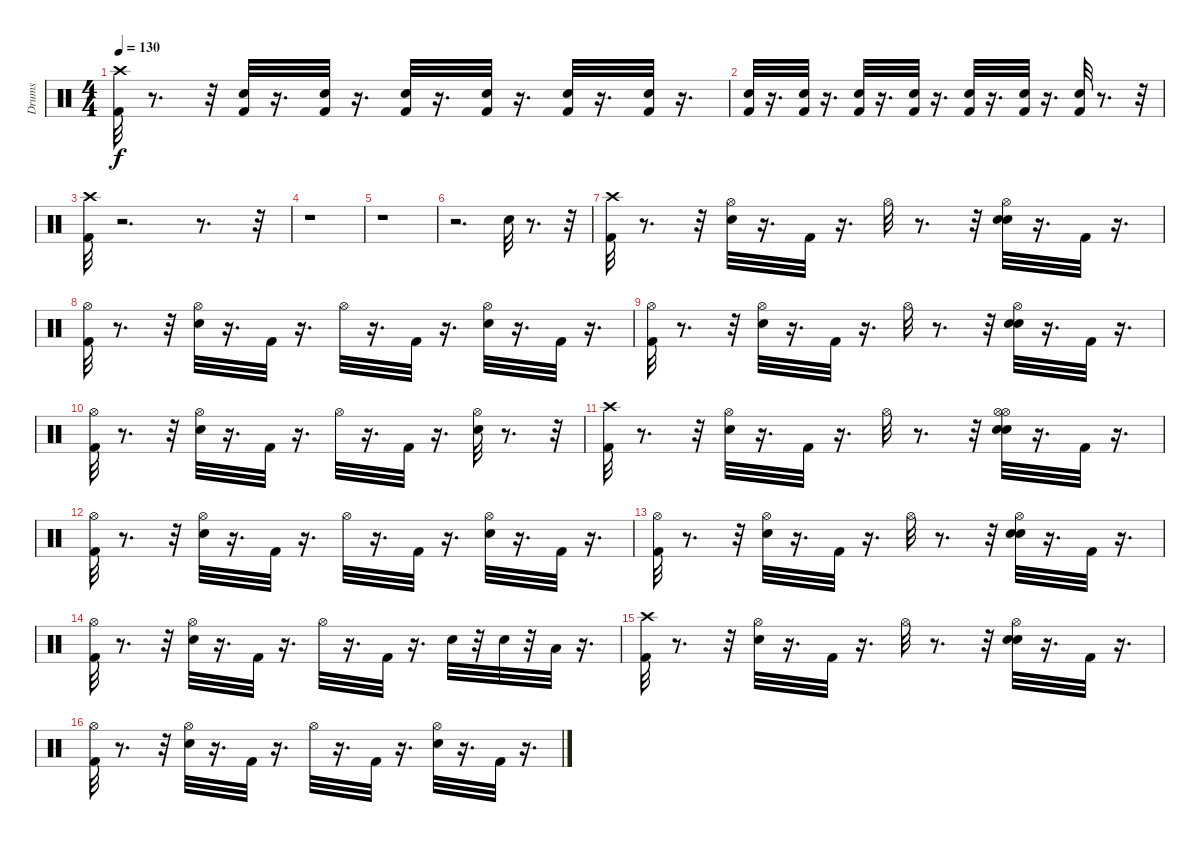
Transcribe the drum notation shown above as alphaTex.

\track ("Drums" "Drums") {instrument percussion}
\staff {score}
\articulation defaults
\ts (4 4)
\tempo 130
\clef neutral
\ks c
("Kick (hit) 2" "Crash high (hit)").32{dy f} r.8{d} r.32 ("Kick (hit) 2" "Snare (hit) 2").32 r.16{d} ("Kick (hit) 2" "Snare (hit) 2").32 r.16{d} ("Kick (hit) 2" "Snare (hit) 2").32 r.16{d} ("Kick (hit) 2" "Snare (hit) 2").32 r.16{d} ("Kick (hit) 2" "Snare (hit) 2").32 r.16{d} ("Kick (hit) 2" "Snare (hit) 2").32 r.16{d} |
("Snare (hit) 2" "Kick (hit) 2").32 r.16{d} ("Kick (hit) 2" "Snare (hit) 2").32 r.16{d} ("Kick (hit) 2" "Snare (hit) 2").32 r.16{d} ("Kick (hit) 2" "Snare (hit) 2").32 r.16{d} ("Snare (hit) 2" "Kick (hit) 2").32 r.16{d} ("Kick (hit) 2" "Snare (hit) 2").32 r.16{d} ("Kick (hit) 2" "Snare (hit) 2").32 r.8{d} r.32 |
("Kick (hit) 2" "Crash high (hit)").32 r.2{d} r.8{d} r.32 |
r.1 |
r.1 |
r.2{d} "Snare (hit) 2".32 r.8{d} r.32 |
("Kick (hit) 2" "Crash high (hit)").32 r.8{d} r.32 ("Snare (hit) 2" "Hi-Hat (open)").32 r.16{d} "Kick (hit) 2".32 r.16{d} "Hi-Hat (open)".32 r.8{d} r.32 ("Snare (hit) 2" "Hi-Hat (open)" "Snare (hit) 2").32 r.16{d} "Kick (hit) 2".32 r.16{d} |
("Kick (hit) 2" "Hi-Hat (open)").32 r.8{d} r.32 ("Snare (hit) 2" "Hi-Hat (open)").32 r.16{d} "Kick (hit) 2".32 r.16{d} "Hi-Hat (open)".32 r.16{d} "Kick (hit) 2".32 r.16{d} ("Hi-Hat (open)" "Snare (hit) 2").32 r.16{d} "Kick (hit) 2".32 r.16{d} |
("Hi-Hat (open)" "Kick (hit) 2").32 r.8{d} r.32 ("Snare (hit) 2" "Hi-Hat (open)").32 r.16{d} "Kick (hit) 2".32 r.16{d} "Hi-Hat (open)".32 r.8{d} r.32 ("Snare (hit) 2" "Hi-Hat (open)" "Snare (hit) 2").32 r.16{d} "Kick (hit) 2".32 r.16{d} |
("Hi-Hat (open)" "Kick (hit) 2").32 r.8{d} r.32 ("Snare (hit) 2" "Hi-Hat (open)").32 r.16{d} "Kick (hit) 2".32 r.16{d} "Hi-Hat (open)".32 r.16{d} "Kick (hit) 2".32 r.16{d} ("Snare (hit) 2" "Hi-Hat (open)").32 r.8{d} r.32 |
("Kick (hit) 2" "Crash high (hit)").32 r.8{d} r.32 ("Snare (hit) 2" "Hi-Hat (open)").32 r.16{d} "Kick (hit) 2".32 r.16{d} "Hi-Hat (open)".32 r.8{d} r.32 ("Snare (hit) 2" "Hi-Hat (open)" "Snare (hit) 2" "Hi-Hat (open)").32 r.16{d} "Kick (hit) 2".32 r.16{d} |
("Kick (hit) 2" "Hi-Hat (open)").32 r.8{d} r.32 ("Snare (hit) 2" "Hi-Hat (open)").32 r.16{d} "Kick (hit) 2".32 r.16{d} "Hi-Hat (open)".32 r.16{d} "Kick (hit) 2".32 r.16{d} ("Snare (hit) 2" "Hi-Hat (open)").32 r.16{d} "Kick (hit) 2".32 r.16{d} |
("Hi-Hat (open)" "Kick (hit) 2").32 r.8{d} r.32 ("Snare (hit) 2" "Hi-Hat (open)").32 r.16{d} "Kick (hit) 2".32 r.16{d} "Hi-Hat (open)".32 r.8{d} r.32 ("Snare (hit) 2" "Snare (hit) 2" "Hi-Hat (open)").32 r.16{d} "Kick (hit) 2".32 r.16{d} |
("Kick (hit) 2" "Hi-Hat (open)").32 r.8{d} r.32 ("Snare (hit) 2" "Hi-Hat (open)").32 r.16{d} "Kick (hit) 2".32 r.16{d} "Hi-Hat (open)".32 r.16{d} "Kick (hit) 2".32 r.16{d} "Snare (hit) 2".32 r.32 "Snare (hit) 2".32 r.32 "Low Floor Tom (hit)".32 r.16{d} |
("Kick (hit) 2" "Crash high (hit)").32 r.8{d} r.32 ("Snare (hit) 2" "Hi-Hat (open)").32 r.16{d} "Kick (hit) 2".32 r.16{d} "Hi-Hat (open)".32 r.8{d} r.32 ("Snare (hit) 2" "Snare (hit) 2" "Hi-Hat (open)").32 r.16{d} "Kick (hit) 2".32 r.16{d} |
("Kick (hit) 2" "Hi-Hat (open)").32 r.8{d} r.32 ("Snare (hit) 2" "Hi-Hat (open)").32 r.16{d} "Kick (hit) 2".32 r.16{d} "Hi-Hat (open)".32 r.16{d} "Kick (hit) 2".32 r.16{d} ("Hi-Hat (open)" "Snare (hit) 2").32 r.16{d} "Kick (hit) 2".32 r.16{d}
